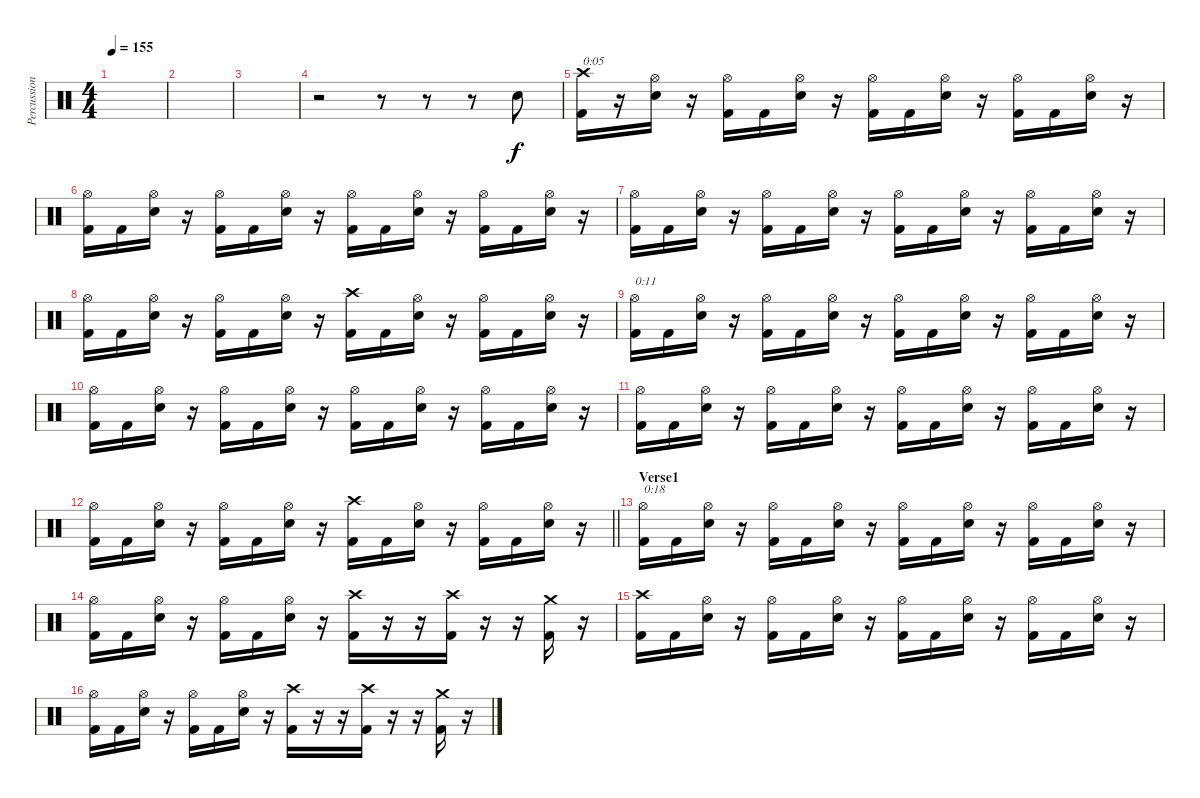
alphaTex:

\track ("Percussion" "Percussion") {instrument percussion}
\staff {score}
\articulation defaults
\ts (4 4)
\tempo 155
\clef neutral
\ks c
|
|
|
r.2 r.8 r.8 r.8 "Snare (hit) 2".8 |
("Crash high (hit)" "Kick (hit) 2").16{txt "0:05"} r.16 ("Hi-Hat (open)" "Snare (hit) 2").16 r.16 ("Hi-Hat (open)" "Kick (hit) 2").16 "Kick (hit) 2".16 ("Hi-Hat (open)" "Snare (hit) 2").16 r.16 ("Hi-Hat (open)" "Kick (hit) 2").16 "Kick (hit) 2".16 ("Hi-Hat (open)" "Snare (hit) 2").16 r.16 ("Hi-Hat (open)" "Kick (hit) 2").16 "Kick (hit) 2".16 ("Hi-Hat (open)" "Snare (hit) 2").16 r.16 |
("Hi-Hat (open)" "Kick (hit) 2").16 "Kick (hit) 2".16 ("Hi-Hat (open)" "Snare (hit) 2").16 r.16 ("Hi-Hat (open)" "Kick (hit) 2").16 "Kick (hit) 2".16 ("Hi-Hat (open)" "Snare (hit) 2").16 r.16 ("Hi-Hat (open)" "Kick (hit) 2").16 "Kick (hit) 2".16 ("Hi-Hat (open)" "Snare (hit) 2").16 r.16 ("Hi-Hat (open)" "Kick (hit) 2").16 "Kick (hit) 2".16 ("Hi-Hat (open)" "Snare (hit) 2").16 r.16 |
("Hi-Hat (open)" "Kick (hit) 2").16 "Kick (hit) 2".16 ("Hi-Hat (open)" "Snare (hit) 2").16 r.16 ("Hi-Hat (open)" "Kick (hit) 2").16 "Kick (hit) 2".16 ("Hi-Hat (open)" "Snare (hit) 2").16 r.16 ("Hi-Hat (open)" "Kick (hit) 2").16 "Kick (hit) 2".16 ("Hi-Hat (open)" "Snare (hit) 2").16 r.16 ("Hi-Hat (open)" "Kick (hit) 2").16 "Kick (hit) 2".16 ("Hi-Hat (open)" "Snare (hit) 2").16 r.16 |
("Hi-Hat (open)" "Kick (hit) 2").16 "Kick (hit) 2".16 ("Hi-Hat (open)" "Snare (hit) 2").16 r.16 ("Hi-Hat (open)" "Kick (hit) 2").16 "Kick (hit) 2".16 ("Hi-Hat (open)" "Snare (hit) 2").16 r.16 ("Crash high (hit)" "Kick (hit) 2").16 "Kick (hit) 2".16 ("Hi-Hat (open)" "Snare (hit) 2").16 r.16 ("Hi-Hat (open)" "Kick (hit) 2").16 "Kick (hit) 2".16 ("Hi-Hat (open)" "Snare (hit) 2").16 r.16 |
("Hi-Hat (open)" "Kick (hit) 2").16{txt "0:11"} "Kick (hit) 2".16 ("Hi-Hat (open)" "Snare (hit) 2").16 r.16 ("Hi-Hat (open)" "Kick (hit) 2").16 "Kick (hit) 2".16 ("Hi-Hat (open)" "Snare (hit) 2").16 r.16 ("Hi-Hat (open)" "Kick (hit) 2").16 "Kick (hit) 2".16 ("Hi-Hat (open)" "Snare (hit) 2").16 r.16 ("Hi-Hat (open)" "Kick (hit) 2").16 "Kick (hit) 2".16 ("Hi-Hat (open)" "Snare (hit) 2").16 r.16 |
("Hi-Hat (open)" "Kick (hit) 2").16 "Kick (hit) 2".16 ("Hi-Hat (open)" "Snare (hit) 2").16 r.16 ("Hi-Hat (open)" "Kick (hit) 2").16 "Kick (hit) 2".16 ("Hi-Hat (open)" "Snare (hit) 2").16 r.16 ("Hi-Hat (open)" "Kick (hit) 2").16 "Kick (hit) 2".16 ("Hi-Hat (open)" "Snare (hit) 2").16 r.16 ("Hi-Hat (open)" "Kick (hit) 2").16 "Kick (hit) 2".16 ("Hi-Hat (open)" "Snare (hit) 2").16 r.16 |
("Hi-Hat (open)" "Kick (hit) 2").16 "Kick (hit) 2".16 ("Hi-Hat (open)" "Snare (hit) 2").16 r.16 ("Hi-Hat (open)" "Kick (hit) 2").16 "Kick (hit) 2".16 ("Hi-Hat (open)" "Snare (hit) 2").16 r.16 ("Hi-Hat (open)" "Kick (hit) 2").16 "Kick (hit) 2".16 ("Hi-Hat (open)" "Snare (hit) 2").16 r.16 ("Hi-Hat (open)" "Kick (hit) 2").16 "Kick (hit) 2".16 ("Hi-Hat (open)" "Snare (hit) 2").16 r.16 |
\barLineRight lightlight
("Hi-Hat (open)" "Kick (hit) 2").16 "Kick (hit) 2".16 ("Hi-Hat (open)" "Snare (hit) 2").16 r.16 ("Hi-Hat (open)" "Kick (hit) 2").16 "Kick (hit) 2".16 ("Hi-Hat (open)" "Snare (hit) 2").16 r.16 ("Crash high (hit)" "Kick (hit) 2").16 "Kick (hit) 2".16 ("Hi-Hat (open)" "Snare (hit) 2").16 r.16 ("Hi-Hat (open)" "Kick (hit) 2").16 "Kick (hit) 2".16 ("Hi-Hat (open)" "Snare (hit) 2").16 r.16 |
\section ("" "Verse1")
("Hi-Hat (open)" "Kick (hit) 2").16{txt "0:18"} "Kick (hit) 2".16 ("Hi-Hat (open)" "Snare (hit) 2").16 r.16 ("Hi-Hat (open)" "Kick (hit) 2").16 "Kick (hit) 2".16 ("Hi-Hat (open)" "Snare (hit) 2").16 r.16 ("Hi-Hat (open)" "Kick (hit) 2").16 "Kick (hit) 2".16 ("Hi-Hat (open)" "Snare (hit) 2").16 r.16 ("Hi-Hat (open)" "Kick (hit) 2").16 "Kick (hit) 2".16 ("Hi-Hat (open)" "Snare (hit) 2").16 r.16 |
("Hi-Hat (open)" "Kick (hit) 2").16 "Kick (hit) 2".16 ("Hi-Hat (open)" "Snare (hit) 2").16 r.16 ("Hi-Hat (open)" "Kick (hit) 2").16 "Kick (hit) 2".16 ("Hi-Hat (open)" "Snare (hit) 2").16 r.16 ("Crash high (hit)" "Kick (hit) 2").16 r.16 r.16 ("Crash high (hit)" "Kick (hit) 2").16 r.16 r.16 ("Crash medium (hit)" "Kick (hit) 2").16 r.16 |
("Crash high (hit)" "Kick (hit) 2").16 "Kick (hit) 2".16 ("Hi-Hat (open)" "Snare (hit) 2").16 r.16 ("Hi-Hat (open)" "Kick (hit) 2").16 "Kick (hit) 2".16 ("Hi-Hat (open)" "Snare (hit) 2").16 r.16 ("Hi-Hat (open)" "Kick (hit) 2").16 "Kick (hit) 2".16 ("Hi-Hat (open)" "Snare (hit) 2").16 r.16 ("Hi-Hat (open)" "Kick (hit) 2").16 "Kick (hit) 2".16 ("Hi-Hat (open)" "Snare (hit) 2").16 r.16 |
("Hi-Hat (open)" "Kick (hit) 2").16 "Kick (hit) 2".16 ("Hi-Hat (open)" "Snare (hit) 2").16 r.16 ("Hi-Hat (open)" "Kick (hit) 2").16 "Kick (hit) 2".16 ("Hi-Hat (open)" "Snare (hit) 2").16 r.16 ("Crash high (hit)" "Kick (hit) 2").16 r.16 r.16 ("Crash high (hit)" "Kick (hit) 2").16 r.16 r.16 ("Crash medium (hit)" "Kick (hit) 2").16 r.16
